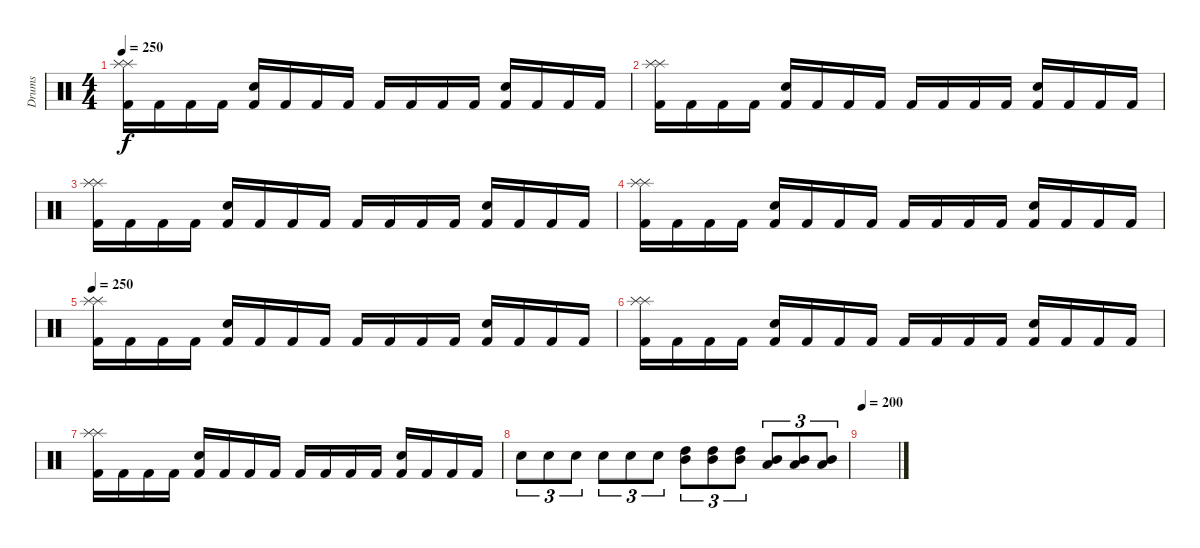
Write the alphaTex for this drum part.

\track ("Drums" "Drums") {instrument percussion}
\staff {score}
\articulation defaults
\ts (4 4)
\tempo 250
\clef neutral
\ks c
("Kick (hit) 2" "Splash (hit)" "Splash (hit)").16{dy f} "Kick (hit) 2".16 "Kick (hit) 2".16 "Kick (hit) 2".16 ("Kick (hit) 2" "Electric Snare (hit)").16 "Kick (hit) 2".16 "Kick (hit) 2".16 "Kick (hit) 2".16 "Kick (hit) 2".16 "Kick (hit) 2".16 "Kick (hit) 2".16 "Kick (hit) 2".16 ("Kick (hit) 2" "Electric Snare (hit)").16 "Kick (hit) 2".16 "Kick (hit) 2".16 "Kick (hit) 2".16 |
("Kick (hit) 2" "Splash (hit)" "Splash (hit)").16 "Kick (hit) 2".16 "Kick (hit) 2".16 "Kick (hit) 2".16 ("Kick (hit) 2" "Electric Snare (hit)").16 "Kick (hit) 2".16 "Kick (hit) 2".16 "Kick (hit) 2".16 "Kick (hit) 2".16 "Kick (hit) 2".16 "Kick (hit) 2".16 "Kick (hit) 2".16 ("Kick (hit) 2" "Electric Snare (hit)").16 "Kick (hit) 2".16 "Kick (hit) 2".16 "Kick (hit) 2".16 |
("Kick (hit) 2" "Splash (hit)" "Splash (hit)").16 "Kick (hit) 2".16 "Kick (hit) 2".16 "Kick (hit) 2".16 ("Kick (hit) 2" "Electric Snare (hit)").16 "Kick (hit) 2".16 "Kick (hit) 2".16 "Kick (hit) 2".16 "Kick (hit) 2".16 "Kick (hit) 2".16 "Kick (hit) 2".16 "Kick (hit) 2".16 ("Kick (hit) 2" "Electric Snare (hit)").16 "Kick (hit) 2".16 "Kick (hit) 2".16 "Kick (hit) 2".16 |
("Kick (hit) 2" "Splash (hit)" "Splash (hit)").16 "Kick (hit) 2".16 "Kick (hit) 2".16 "Kick (hit) 2".16 ("Kick (hit) 2" "Electric Snare (hit)").16 "Kick (hit) 2".16 "Kick (hit) 2".16 "Kick (hit) 2".16 "Kick (hit) 2".16 "Kick (hit) 2".16 "Kick (hit) 2".16 "Kick (hit) 2".16 ("Kick (hit) 2" "Electric Snare (hit)").16 "Kick (hit) 2".16 "Kick (hit) 2".16 "Kick (hit) 2".16 |
\tempo 250
("Kick (hit) 2" "Splash (hit)" "Splash (hit)").16 "Kick (hit) 2".16 "Kick (hit) 2".16 "Kick (hit) 2".16 ("Kick (hit) 2" "Electric Snare (hit)").16 "Kick (hit) 2".16 "Kick (hit) 2".16 "Kick (hit) 2".16 "Kick (hit) 2".16 "Kick (hit) 2".16 "Kick (hit) 2".16 "Kick (hit) 2".16 ("Kick (hit) 2" "Electric Snare (hit)").16 "Kick (hit) 2".16 "Kick (hit) 2".16 "Kick (hit) 2".16 |
("Kick (hit) 2" "Splash (hit)" "Splash (hit)").16 "Kick (hit) 2".16 "Kick (hit) 2".16 "Kick (hit) 2".16 ("Kick (hit) 2" "Electric Snare (hit)").16 "Kick (hit) 2".16 "Kick (hit) 2".16 "Kick (hit) 2".16 "Kick (hit) 2".16 "Kick (hit) 2".16 "Kick (hit) 2".16 "Kick (hit) 2".16 ("Kick (hit) 2" "Electric Snare (hit)").16 "Kick (hit) 2".16 "Kick (hit) 2".16 "Kick (hit) 2".16 |
("Kick (hit) 2" "Splash (hit)" "Splash (hit)").16 "Kick (hit) 2".16 "Kick (hit) 2".16 "Kick (hit) 2".16 ("Kick (hit) 2" "Electric Snare (hit)").16 "Kick (hit) 2".16 "Kick (hit) 2".16 "Kick (hit) 2".16 "Kick (hit) 2".16 "Kick (hit) 2".16 "Kick (hit) 2".16 "Kick (hit) 2".16 ("Kick (hit) 2" "Electric Snare (hit)").16 "Kick (hit) 2".16 "Kick (hit) 2".16 "Kick (hit) 2".16 |
"Electric Snare (hit)".8{tu (3 2)} "Electric Snare (hit)".8{tu (3 2)} "Electric Snare (hit)".8{tu (3 2)} "Electric Snare (hit)".8{tu (3 2)} "Electric Snare (hit)".8{tu (3 2)} "Electric Snare (hit)".8{tu (3 2)} ("High Tom (hit)" "Mid Tom (hit)").8{tu (3 2)} ("High Tom (hit)" "Mid Tom (hit)").8{tu (3 2)} ("High Tom (hit)" "Mid Tom (hit)").8{tu (3 2)} ("Mid Tom (hit)" "Low Tom (hit)").8{tu (3 2)} ("Mid Tom (hit)" "Low Tom (hit)").8{tu (3 2)} ("Mid Tom (hit)" "Low Tom (hit)").8{tu (3 2)} |
\tempo 200
